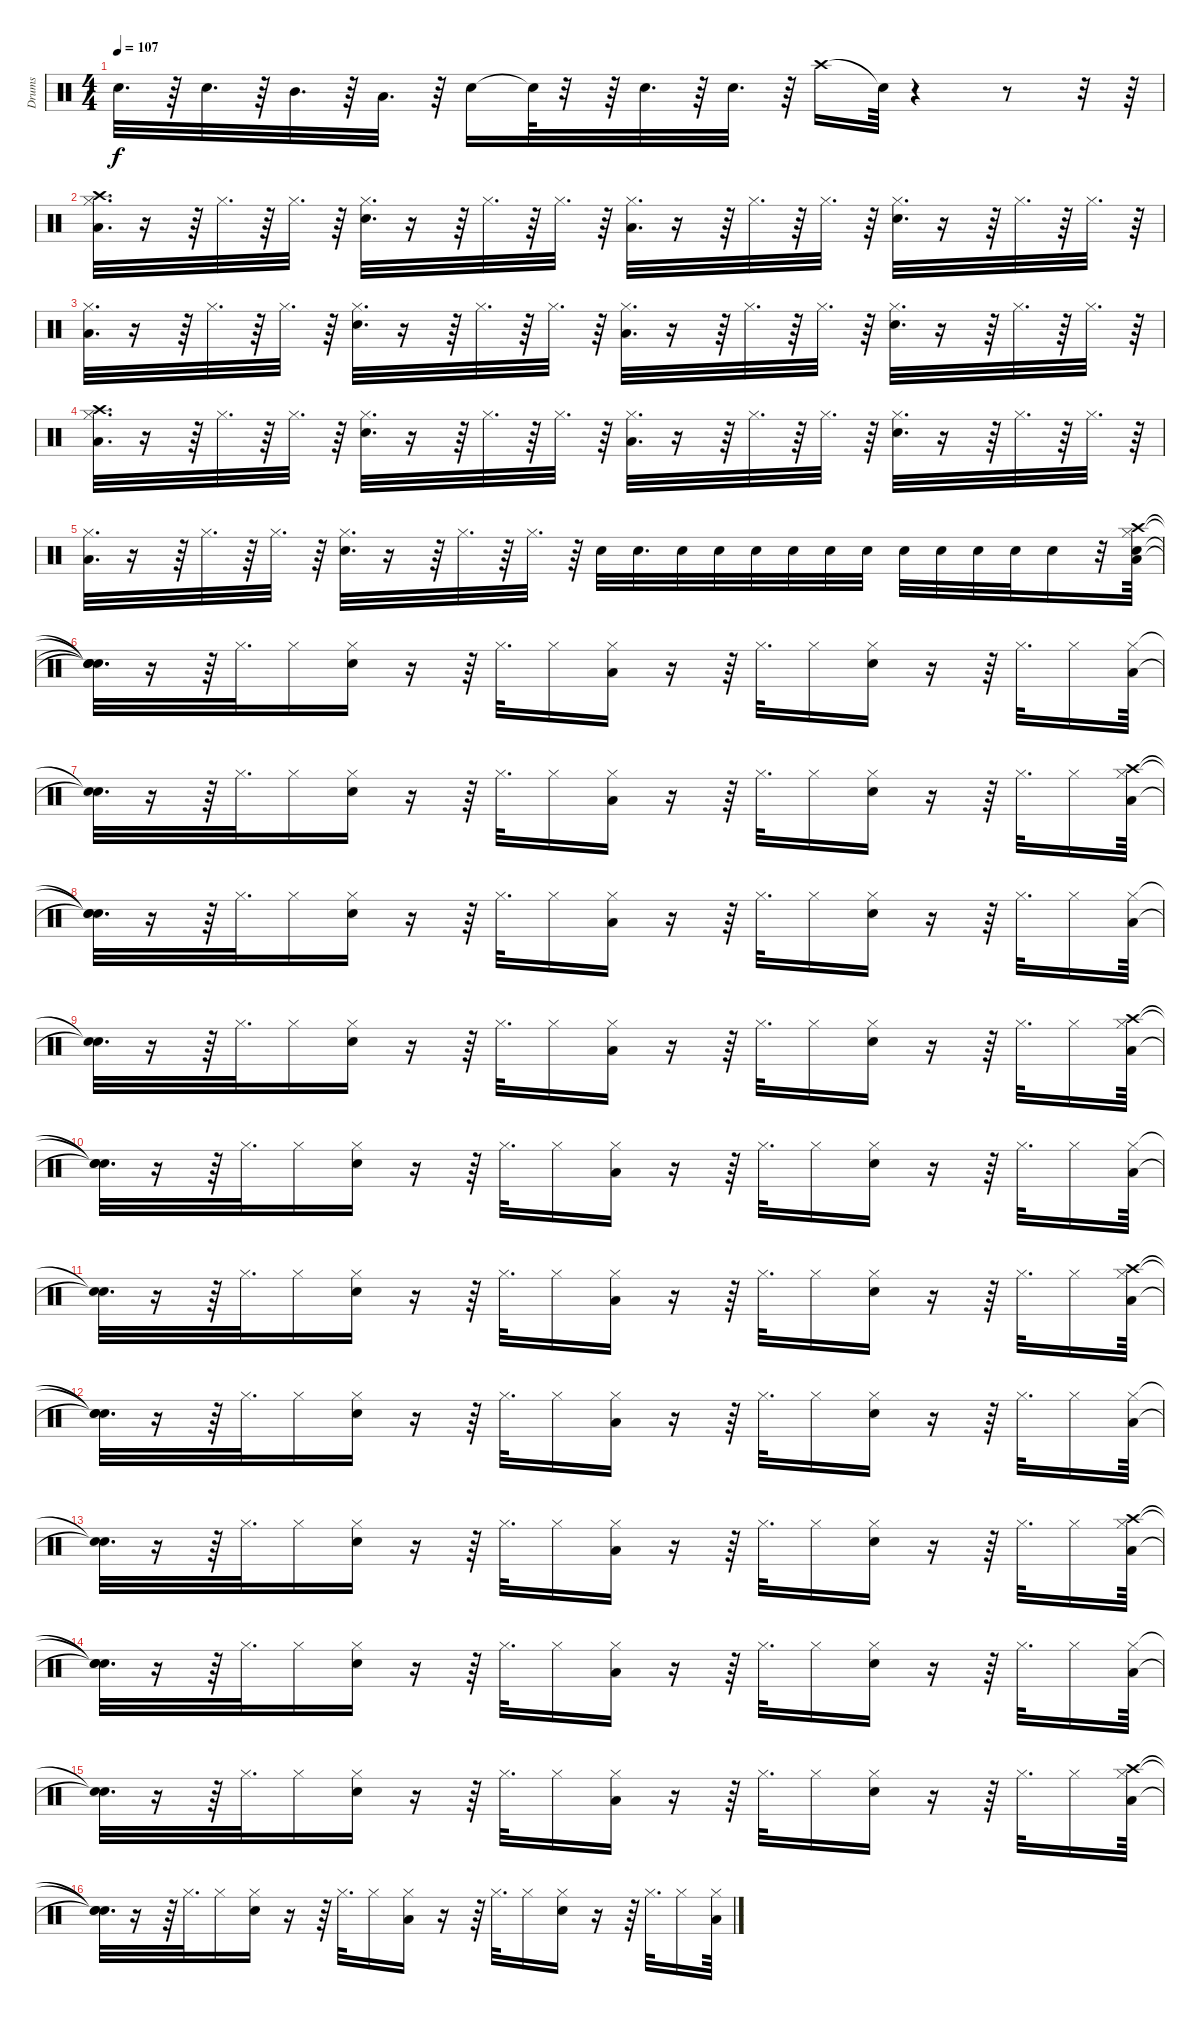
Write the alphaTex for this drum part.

\track ("Drums" "Drums") {instrument percussion}
\staff {score}
\articulation defaults
\ts (4 4)
\tempo 107
\clef neutral
\ks c "Snare (hit) 2".32{d dy f}
r.64 "Snare (hit) 2".32{d} r.64 "Mid Tom (hit)".32{d} r.64 "Low Tom (hit)".32{d} r.64 "Snare (hit) 2".16 "Snare (hit)"{t}.64 r.32 r.64 "Snare (hit) 2".32{d} r.64 "Snare (hit) 2".32{d} r.64 "Crash high (hit)".16 "Snare (hit)"{t}.64 r.4 r.8 r.32 r.64 |
("Hi-Hat (closed)" "Crash high (hit)" "Low Tom (hit)").32{d} r.16 r.64 "Hi-Hat (closed)".32{d} r.64 "Hi-Hat (closed)".32{d} r.64 ("Hi-Hat (closed)" "Snare (hit) 2").32{d} r.16 r.64 "Hi-Hat (closed)".32{d} r.64 "Hi-Hat (closed)".32{d} r.64 ("Hi-Hat (closed)" "Low Tom (hit)").32{d} r.16 r.64 "Hi-Hat (closed)".32{d} r.64 "Hi-Hat (closed)".32{d} r.64 ("Hi-Hat (closed)" "Snare (hit) 2").32{d} r.16 r.64 "Hi-Hat (closed)".32{d} r.64 "Hi-Hat (closed)".32{d} r.64 |
("Hi-Hat (closed)" "Low Tom (hit)").32{d} r.16 r.64 "Hi-Hat (closed)".32{d} r.64 "Hi-Hat (closed)".32{d} r.64 ("Hi-Hat (closed)" "Snare (hit) 2").32{d} r.16 r.64 "Hi-Hat (closed)".32{d} r.64 "Hi-Hat (closed)".32{d} r.64 ("Hi-Hat (closed)" "Low Tom (hit)").32{d} r.16 r.64 "Hi-Hat (closed)".32{d} r.64 "Hi-Hat (closed)".32{d} r.64 ("Hi-Hat (closed)" "Snare (hit) 2").32{d} r.16 r.64 "Hi-Hat (closed)".32{d} r.64 "Hi-Hat (closed)".32{d} r.64 |
("Hi-Hat (closed)" "Crash high (hit)" "Low Tom (hit)").32{d} r.16 r.64 "Hi-Hat (closed)".32{d} r.64 "Hi-Hat (closed)".32{d} r.64 ("Hi-Hat (closed)" "Snare (hit) 2").32{d} r.16 r.64 "Hi-Hat (closed)".32{d} r.64 "Hi-Hat (closed)".32{d} r.64 ("Hi-Hat (closed)" "Low Tom (hit)").32{d} r.16 r.64 "Hi-Hat (closed)".32{d} r.64 "Hi-Hat (closed)".32{d} r.64 ("Hi-Hat (closed)" "Snare (hit) 2").32{d} r.16 r.64 "Hi-Hat (closed)".32{d} r.64 "Hi-Hat (closed)".32{d} r.64 |
("Hi-Hat (closed)" "Low Tom (hit)").32{d} r.16 r.64 "Hi-Hat (closed)".32{d} r.64 "Hi-Hat (closed)".32{d} r.64 ("Hi-Hat (closed)" "Snare (hit) 2").32{d} r.16 r.64 "Hi-Hat (closed)".32{d} r.64 "Hi-Hat (closed)".32{d} r.64 "Snare (hit) 2".32 "Snare (hit) 2".32{d} "Snare (hit) 2".32 "Snare (hit) 2".32 "Snare (hit) 2".32 "Snare (hit) 2".32 "Snare (hit) 2".32 "Snare (hit) 2".32 "Snare (hit) 2".32 "Snare (hit) 2".32 "Snare (hit) 2".32 "Snare (hit) 2".32 "Snare (hit) 2".16 r.32 ("Hi-Hat (closed)" "Crash high (hit)" "Low Tom (hit)" "Snare (hit) 2").64 |
("Snare (hit)"{t} "Snare (hit)"{t} "Snare (hit)"{t} "Snare (hit)"{t}).32{d} r.16 r.64 "Hi-Hat (closed)".32{d} "Hi-Hat (closed)".16 ("Hi-Hat (closed)" "Snare (hit) 2").16 r.16 r.64 "Hi-Hat (closed)".32{d} "Hi-Hat (closed)".16 ("Hi-Hat (closed)" "Low Tom (hit)").16 r.16 r.64 "Hi-Hat (closed)".32{d} "Hi-Hat (closed)".16 ("Hi-Hat (closed)" "Snare (hit) 2").16 r.16 r.64 "Hi-Hat (closed)".32{d} "Hi-Hat (closed)".16 ("Hi-Hat (closed)" "Low Tom (hit)").64 |
("Snare (hit)"{t} "Snare (hit)"{t}).32{d} r.16 r.64 "Hi-Hat (closed)".32{d} "Hi-Hat (closed)".16 ("Hi-Hat (closed)" "Snare (hit) 2").16 r.16 r.64 "Hi-Hat (closed)".32{d} "Hi-Hat (closed)".16 ("Hi-Hat (closed)" "Low Tom (hit)").16 r.16 r.64 "Hi-Hat (closed)".32{d} "Hi-Hat (closed)".16 ("Hi-Hat (closed)" "Snare (hit) 2").16 r.16 r.64 "Hi-Hat (closed)".32{d} "Hi-Hat (closed)".16 ("Hi-Hat (closed)" "Crash high (hit)" "Low Tom (hit)").64 |
("Snare (hit)"{t} "Snare (hit)"{t} "Snare (hit)"{t}).32{d} r.16 r.64 "Hi-Hat (closed)".32{d} "Hi-Hat (closed)".16 ("Hi-Hat (closed)" "Snare (hit) 2").16 r.16 r.64 "Hi-Hat (closed)".32{d} "Hi-Hat (closed)".16 ("Hi-Hat (closed)" "Low Tom (hit)").16 r.16 r.64 "Hi-Hat (closed)".32{d} "Hi-Hat (closed)".16 ("Hi-Hat (closed)" "Snare (hit) 2").16 r.16 r.64 "Hi-Hat (closed)".32{d} "Hi-Hat (closed)".16 ("Hi-Hat (closed)" "Low Tom (hit)").64 |
("Snare (hit)"{t} "Snare (hit)"{t}).32{d} r.16 r.64 "Hi-Hat (closed)".32{d} "Hi-Hat (closed)".16 ("Hi-Hat (closed)" "Snare (hit) 2").16 r.16 r.64 "Hi-Hat (closed)".32{d} "Hi-Hat (closed)".16 ("Hi-Hat (closed)" "Low Tom (hit)").16 r.16 r.64 "Hi-Hat (closed)".32{d} "Hi-Hat (closed)".16 ("Hi-Hat (closed)" "Snare (hit) 2").16 r.16 r.64 "Hi-Hat (closed)".32{d} "Hi-Hat (closed)".16 ("Hi-Hat (closed)" "Crash high (hit)" "Low Tom (hit)").64 |
("Snare (hit)"{t} "Snare (hit)"{t} "Snare (hit)"{t}).32{d} r.16 r.64 "Hi-Hat (closed)".32{d} "Hi-Hat (closed)".16 ("Hi-Hat (closed)" "Snare (hit) 2").16 r.16 r.64 "Hi-Hat (closed)".32{d} "Hi-Hat (closed)".16 ("Hi-Hat (closed)" "Low Tom (hit)").16 r.16 r.64 "Hi-Hat (closed)".32{d} "Hi-Hat (closed)".16 ("Hi-Hat (closed)" "Snare (hit) 2").16 r.16 r.64 "Hi-Hat (closed)".32{d} "Hi-Hat (closed)".16 ("Hi-Hat (closed)" "Low Tom (hit)").64 |
("Snare (hit)"{t} "Snare (hit)"{t}).32{d} r.16 r.64 "Hi-Hat (closed)".32{d} "Hi-Hat (closed)".16 ("Hi-Hat (closed)" "Snare (hit) 2").16 r.16 r.64 "Hi-Hat (closed)".32{d} "Hi-Hat (closed)".16 ("Hi-Hat (closed)" "Low Tom (hit)").16 r.16 r.64 "Hi-Hat (closed)".32{d} "Hi-Hat (closed)".16 ("Hi-Hat (closed)" "Snare (hit) 2").16 r.16 r.64 "Hi-Hat (closed)".32{d} "Hi-Hat (closed)".16 ("Hi-Hat (closed)" "Crash high (hit)" "Low Tom (hit)").64 |
("Snare (hit)"{t} "Snare (hit)"{t} "Snare (hit)"{t}).32{d} r.16 r.64 "Hi-Hat (closed)".32{d} "Hi-Hat (closed)".16 ("Hi-Hat (closed)" "Snare (hit) 2").16 r.16 r.64 "Hi-Hat (closed)".32{d} "Hi-Hat (closed)".16 ("Hi-Hat (closed)" "Low Tom (hit)").16 r.16 r.64 "Hi-Hat (closed)".32{d} "Hi-Hat (closed)".16 ("Hi-Hat (closed)" "Snare (hit) 2").16 r.16 r.64 "Hi-Hat (closed)".32{d} "Hi-Hat (closed)".16 ("Hi-Hat (closed)" "Low Tom (hit)").64 |
("Snare (hit)"{t} "Snare (hit)"{t}).32{d} r.16 r.64 "Hi-Hat (closed)".32{d} "Hi-Hat (closed)".16 ("Hi-Hat (closed)" "Snare (hit) 2").16 r.16 r.64 "Hi-Hat (closed)".32{d} "Hi-Hat (closed)".16 ("Hi-Hat (closed)" "Low Tom (hit)").16 r.16 r.64 "Hi-Hat (closed)".32{d} "Hi-Hat (closed)".16 ("Hi-Hat (closed)" "Snare (hit) 2").16 r.16 r.64 "Hi-Hat (closed)".32{d} "Hi-Hat (closed)".16 ("Hi-Hat (closed)" "Crash high (hit)" "Low Tom (hit)").64 |
("Snare (hit)"{t} "Snare (hit)"{t} "Snare (hit)"{t}).32{d} r.16 r.64 "Hi-Hat (closed)".32{d} "Hi-Hat (closed)".16 ("Hi-Hat (closed)" "Snare (hit) 2").16 r.16 r.64 "Hi-Hat (closed)".32{d} "Hi-Hat (closed)".16 ("Hi-Hat (closed)" "Low Tom (hit)").16 r.16 r.64 "Hi-Hat (closed)".32{d} "Hi-Hat (closed)".16 ("Hi-Hat (closed)" "Snare (hit) 2").16 r.16 r.64 "Hi-Hat (closed)".32{d} "Hi-Hat (closed)".16 ("Hi-Hat (closed)" "Low Tom (hit)").64 |
("Snare (hit)"{t} "Snare (hit)"{t}).32{d} r.16 r.64 "Hi-Hat (closed)".32{d} "Hi-Hat (closed)".16 ("Hi-Hat (closed)" "Snare (hit) 2").16 r.16 r.64 "Hi-Hat (closed)".32{d} "Hi-Hat (closed)".16 ("Hi-Hat (closed)" "Low Tom (hit)").16 r.16 r.64 "Hi-Hat (closed)".32{d} "Hi-Hat (closed)".16 ("Hi-Hat (closed)" "Snare (hit) 2").16 r.16 r.64 "Hi-Hat (closed)".32{d} "Hi-Hat (closed)".16 ("Hi-Hat (closed)" "Crash high (hit)" "Low Tom (hit)").64 |
("Snare (hit)"{t} "Snare (hit)"{t} "Snare (hit)"{t}).32{d} r.16 r.64 "Hi-Hat (closed)".32{d} "Hi-Hat (closed)".16 ("Hi-Hat (closed)" "Snare (hit) 2").16 r.16 r.64 "Hi-Hat (closed)".32{d} "Hi-Hat (closed)".16 ("Hi-Hat (closed)" "Low Tom (hit)").16 r.16 r.64 "Hi-Hat (closed)".32{d} "Hi-Hat (closed)".16 ("Hi-Hat (closed)" "Snare (hit) 2").16 r.16 r.64 "Hi-Hat (closed)".32{d} "Hi-Hat (closed)".16 ("Hi-Hat (closed)" "Low Tom (hit)").64
